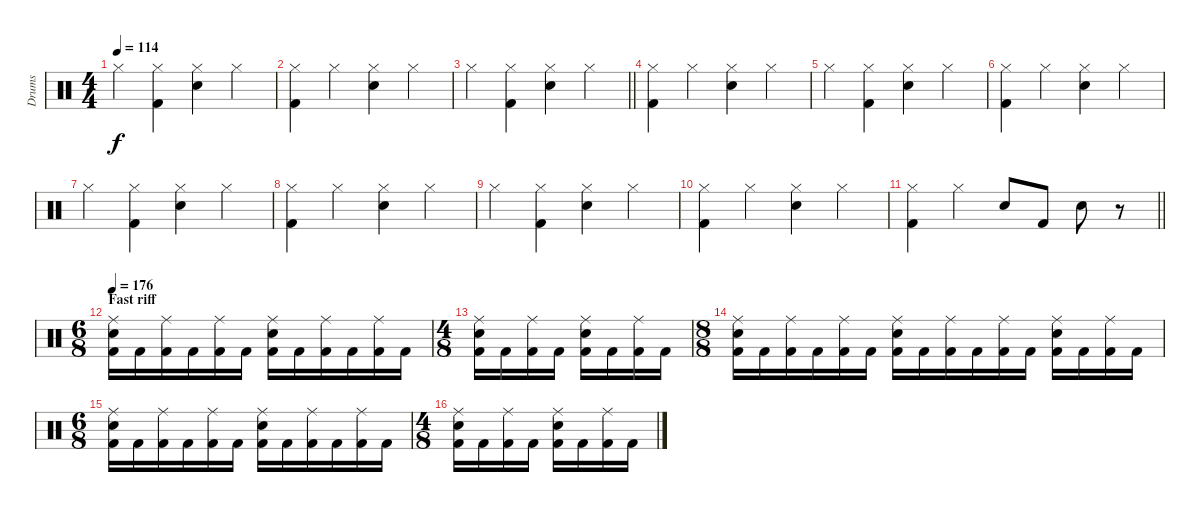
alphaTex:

\track ("Drums" "Drums") {instrument percussion}
\staff {score}
\articulation defaults
\ts (4 4)
\tempo 114
\clef neutral
\ks c "Hi-Hat (closed)".4{dy f}
("Hi-Hat (closed)" "Kick (hit) 2").4 ("Hi-Hat (closed)" "Snare (hit) 2").4 "Hi-Hat (closed)".4 |
("Hi-Hat (closed)" "Kick (hit) 2").4 "Hi-Hat (closed)".4 ("Hi-Hat (closed)" "Snare (hit) 2").4 "Hi-Hat (closed)".4 |
\barLineRight lightlight "Hi-Hat (closed)".4
("Hi-Hat (closed)" "Kick (hit) 2").4 ("Hi-Hat (closed)" "Snare (hit) 2").4 "Hi-Hat (closed)".4 |
\section ("" "")
("Hi-Hat (closed)" "Kick (hit) 2").4 "Hi-Hat (closed)".4 ("Hi-Hat (closed)" "Snare (hit) 2").4 "Hi-Hat (closed)".4 |
"Hi-Hat (closed)".4 ("Hi-Hat (closed)" "Kick (hit) 2").4 ("Hi-Hat (closed)" "Snare (hit) 2").4 "Hi-Hat (closed)".4 |
("Hi-Hat (closed)" "Kick (hit) 2").4 "Hi-Hat (closed)".4 ("Hi-Hat (closed)" "Snare (hit) 2").4 "Hi-Hat (closed)".4 |
"Hi-Hat (closed)".4 ("Hi-Hat (closed)" "Kick (hit) 2").4 ("Hi-Hat (closed)" "Snare (hit) 2").4 "Hi-Hat (closed)".4 |
("Hi-Hat (closed)" "Kick (hit) 2").4 "Hi-Hat (closed)".4 ("Hi-Hat (closed)" "Snare (hit) 2").4 "Hi-Hat (closed)".4 |
"Hi-Hat (closed)".4 ("Hi-Hat (closed)" "Kick (hit) 2").4 ("Hi-Hat (closed)" "Snare (hit) 2").4 "Hi-Hat (closed)".4 |
("Hi-Hat (closed)" "Kick (hit) 2").4 "Hi-Hat (closed)".4 ("Hi-Hat (closed)" "Snare (hit) 2").4 "Hi-Hat (closed)".4 |
\barLineRight lightlight
("Hi-Hat (closed)" "Kick (hit) 2").4 "Hi-Hat (closed)".4 "Electric Snare (hit)".8 "Kick (hit) 2".8 "Electric Snare (hit)".8 r.8 |
\ts (6 8)
\section ("" "Fast riff")
\tempo 176
("Ride (middle)" "Snare (hit) 2" "Kick (hit) 2").16 "Kick (hit) 2".16 ("Ride (middle)" "Kick (hit) 2").16 "Kick (hit) 2".16 ("Ride (middle)" "Kick (hit) 2").16 "Kick (hit) 2".16 ("Ride (middle)" "Snare (hit) 2" "Kick (hit) 2").16 "Kick (hit) 2".16 ("Ride (middle)" "Kick (hit) 2").16 "Kick (hit) 2".16 ("Ride (middle)" "Kick (hit) 2").16 "Kick (hit) 2".16 |
\ts (4 8)
("Ride (middle)" "Snare (hit) 2" "Kick (hit) 2").16 "Kick (hit) 2".16 ("Ride (middle)" "Kick (hit) 2").16 "Kick (hit) 2".16 ("Ride (middle)" "Snare (hit) 2" "Kick (hit) 2").16 "Kick (hit) 2".16 ("Ride (middle)" "Kick (hit) 2").16 "Kick (hit) 2".16 |
\ts (8 8)
("Ride (middle)" "Snare (hit) 2" "Kick (hit) 2").16 "Kick (hit) 2".16 ("Ride (middle)" "Kick (hit) 2").16 "Kick (hit) 2".16 ("Ride (middle)" "Kick (hit) 2").16 "Kick (hit) 2".16 ("Ride (middle)" "Snare (hit) 2" "Kick (hit) 2").16 "Kick (hit) 2".16 ("Ride (middle)" "Kick (hit) 2").16 "Kick (hit) 2".16 ("Ride (middle)" "Kick (hit) 2").16 "Kick (hit) 2".16 ("Ride (middle)" "Snare (hit) 2" "Kick (hit) 2").16 "Kick (hit) 2".16 ("Ride (middle)" "Kick (hit) 2").16 "Kick (hit) 2".16 |
\ts (6 8)
("Ride (middle)" "Snare (hit) 2" "Kick (hit) 2").16 "Kick (hit) 2".16 ("Ride (middle)" "Kick (hit) 2").16 "Kick (hit) 2".16 ("Ride (middle)" "Kick (hit) 2").16 "Kick (hit) 2".16 ("Ride (middle)" "Snare (hit) 2" "Kick (hit) 2").16 "Kick (hit) 2".16 ("Ride (middle)" "Kick (hit) 2").16 "Kick (hit) 2".16 ("Ride (middle)" "Kick (hit) 2").16 "Kick (hit) 2".16 |
\ts (4 8)
("Ride (middle)" "Snare (hit) 2" "Kick (hit) 2").16 "Kick (hit) 2".16 ("Ride (middle)" "Kick (hit) 2").16 "Kick (hit) 2".16 ("Ride (middle)" "Snare (hit) 2" "Kick (hit) 2").16 "Kick (hit) 2".16 ("Ride (middle)" "Kick (hit) 2").16 "Kick (hit) 2".16
